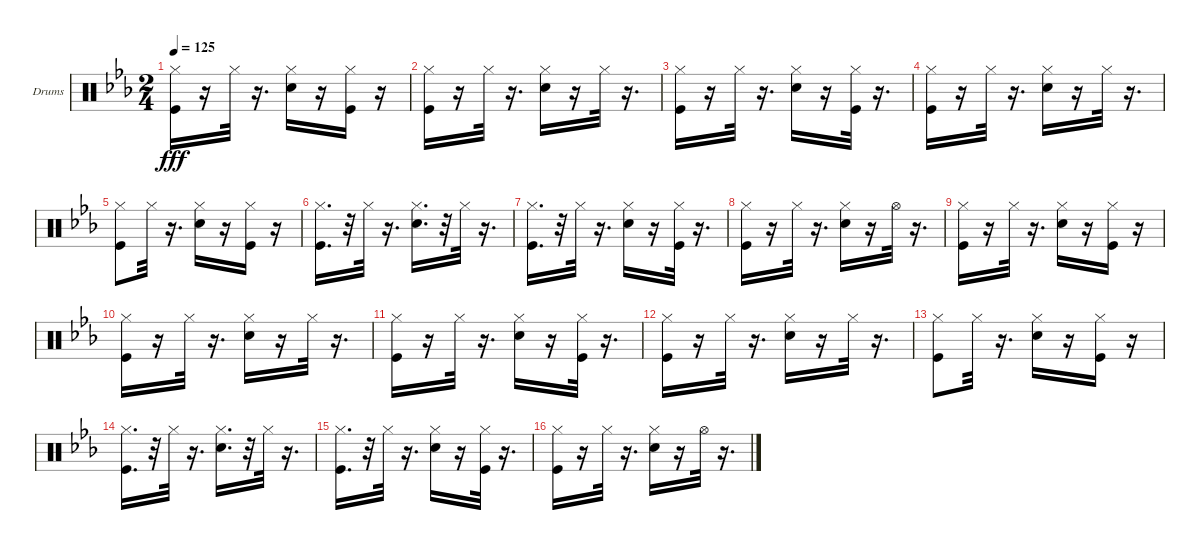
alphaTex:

\bracketExtendMode groupsimilarinstruments
\firstSystemTrackNameOrientation horizontal
\otherSystemsTrackNameOrientation horizontal
\track ("Ударные" "Drums") {instrument percussion}
\staff {score}
\articulation defaults
\ts (2 4)
\tempo 125
\clef neutral
\ks cminor
("Kick (hit)" "Hi-Hat (closed)").16{dy fff} r.16 "Hi-Hat (closed)".32 r.16{d} ("Snare (hit) 2" "Hi-Hat (closed)").16 r.16 ("Kick (hit)" "Hi-Hat (closed)").16 r.16 |
("Kick (hit)" "Hi-Hat (closed)").16 r.16 "Hi-Hat (closed)".32 r.16{d} ("Snare (hit) 2" "Hi-Hat (closed)").16 r.16 "Hi-Hat (closed)".32 r.16{d} |
("Kick (hit)" "Hi-Hat (closed)").16 r.16 "Hi-Hat (closed)".32 r.16{d} ("Snare (hit) 2" "Hi-Hat (closed)").16 r.16 ("Kick (hit)" "Hi-Hat (closed)").32 r.16{d} |
("Kick (hit)" "Hi-Hat (closed)").16 r.16 "Hi-Hat (closed)".32 r.16{d} ("Snare (hit) 2" "Hi-Hat (closed)").16 r.16 "Hi-Hat (closed)".32 r.16{d} |
("Kick (hit)" "Hi-Hat (closed)").8 "Hi-Hat (closed)".32 r.16{d} ("Snare (hit) 2" "Hi-Hat (closed)").16 r.16 ("Kick (hit)" "Hi-Hat (closed)").16 r.16 |
("Kick (hit)" "Hi-Hat (closed)").16{d} r.32 "Hi-Hat (closed)".32 r.16{d} ("Snare (hit) 2" "Hi-Hat (closed)").16{d} r.32 "Hi-Hat (closed)".32 r.16{d} |
("Kick (hit)" "Hi-Hat (closed)").16{d} r.32 "Hi-Hat (closed)".32 r.16{d} ("Snare (hit) 2" "Hi-Hat (closed)").16 r.16 ("Kick (hit)" "Hi-Hat (closed)").32 r.16{d} |
("Kick (hit)" "Hi-Hat (closed)").16 r.16 "Hi-Hat (closed)".32 r.16{d} ("Snare (hit) 2" "Hi-Hat (closed)").16 r.16 "Hi-Hat (open)".32 r.16{d} |
("Kick (hit)" "Hi-Hat (closed)").16 r.16 "Hi-Hat (closed)".32 r.16{d} ("Snare (hit) 2" "Hi-Hat (closed)").16 r.16 ("Kick (hit)" "Hi-Hat (closed)").16 r.16 |
("Kick (hit)" "Hi-Hat (closed)").16 r.16 "Hi-Hat (closed)".32 r.16{d} ("Snare (hit) 2" "Hi-Hat (closed)").16 r.16 "Hi-Hat (closed)".32 r.16{d} |
("Kick (hit)" "Hi-Hat (closed)").16 r.16 "Hi-Hat (closed)".32 r.16{d} ("Snare (hit) 2" "Hi-Hat (closed)").16 r.16 ("Kick (hit)" "Hi-Hat (closed)").32 r.16{d} |
("Kick (hit)" "Hi-Hat (closed)").16 r.16 "Hi-Hat (closed)".32 r.16{d} ("Snare (hit) 2" "Hi-Hat (closed)").16 r.16 "Hi-Hat (closed)".32 r.16{d} |
("Kick (hit)" "Hi-Hat (closed)").8 "Hi-Hat (closed)".32 r.16{d} ("Snare (hit) 2" "Hi-Hat (closed)").16 r.16 ("Kick (hit)" "Hi-Hat (closed)").16 r.16 |
("Kick (hit)" "Hi-Hat (closed)").16{d} r.32 "Hi-Hat (closed)".32 r.16{d} ("Snare (hit) 2" "Hi-Hat (closed)").16{d} r.32 "Hi-Hat (closed)".32 r.16{d} |
("Kick (hit)" "Hi-Hat (closed)").16{d} r.32 "Hi-Hat (closed)".32 r.16{d} ("Snare (hit) 2" "Hi-Hat (closed)").16 r.16 ("Kick (hit)" "Hi-Hat (closed)").32 r.16{d} |
("Kick (hit)" "Hi-Hat (closed)").16 r.16 "Hi-Hat (closed)".32 r.16{d} ("Snare (hit) 2" "Hi-Hat (closed)").16 r.16 "Hi-Hat (open)".32 r.16{d}
